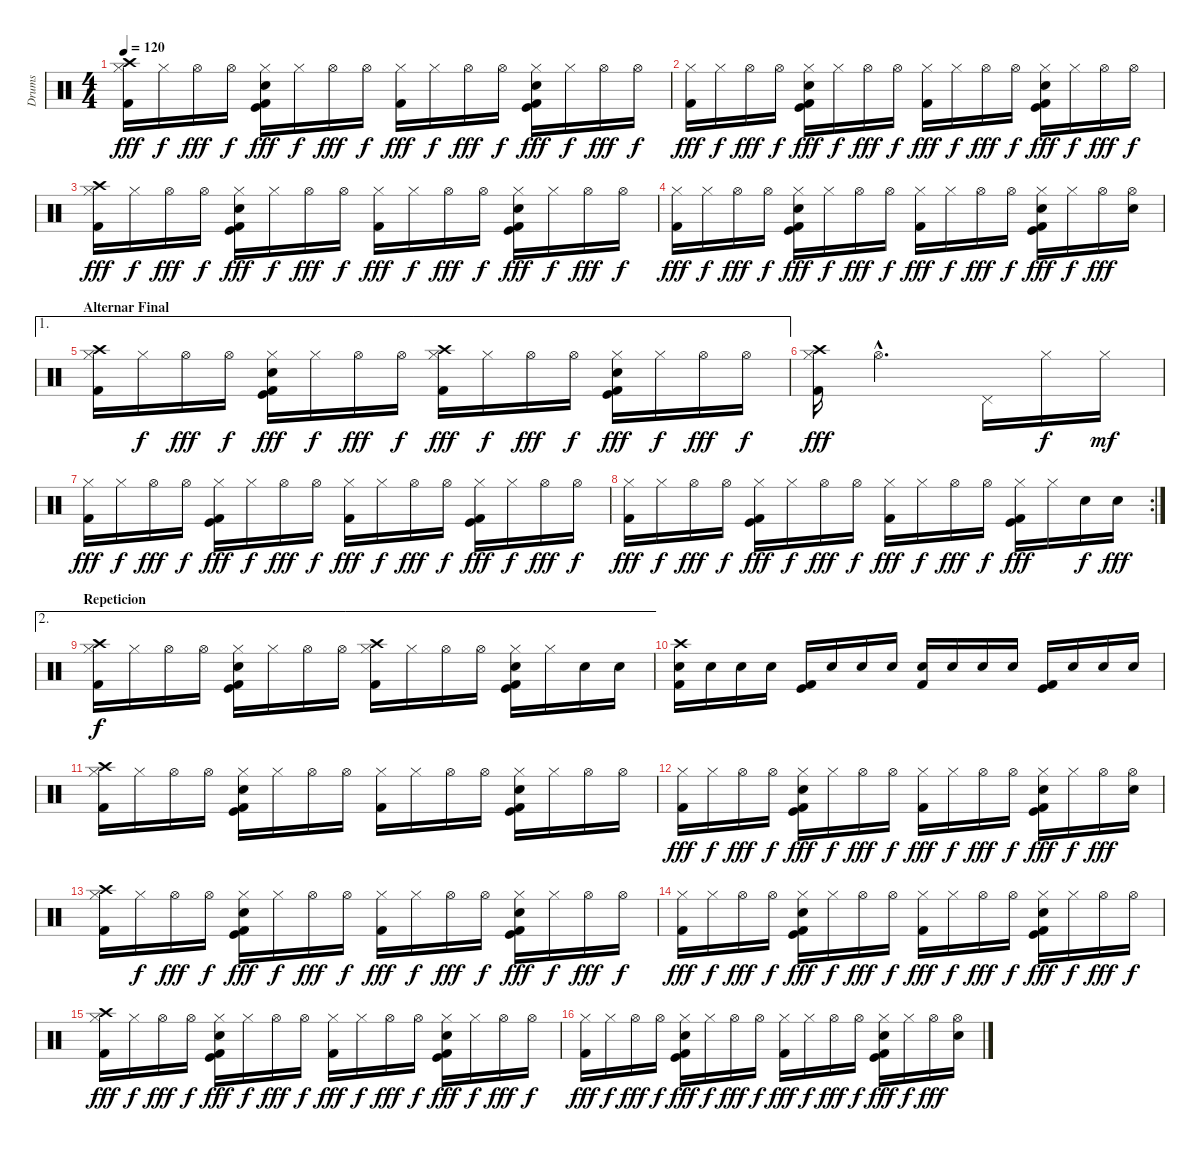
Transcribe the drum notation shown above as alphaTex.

\track ("Drums" "Drums") {instrument percussion}
\staff {score}
\articulation defaults
\ts (4 4)
\tempo 120
\clef neutral
\ks c
("Hi-Hat (closed)" "Crash high (hit)" "Kick (hit) 2").16{dy fff} "Hi-Hat (closed)".16{dy f} "Hi-Hat (open)".16{dy fff} "Hi-Hat (open)".16{dy f} ("Hi-Hat (closed)" "Electric Snare (hit)" "Kick (hit)" "Kick (hit) 2").16{dy fff} "Hi-Hat (closed)".16{dy f} "Hi-Hat (open)".16{dy fff} "Hi-Hat (open)".16{dy f} ("Hi-Hat (closed)" "Kick (hit) 2").16{dy fff} "Hi-Hat (closed)".16{dy f} "Hi-Hat (open)".16{dy fff} "Hi-Hat (open)".16{dy f} ("Hi-Hat (closed)" "Electric Snare (hit)" "Kick (hit)" "Kick (hit) 2").16{dy fff} "Hi-Hat (closed)".16{dy f} "Hi-Hat (open)".16{dy fff} "Hi-Hat (open)".16{dy f} |
("Hi-Hat (closed)" "Kick (hit) 2").16{dy fff} "Hi-Hat (closed)".16{dy f} "Hi-Hat (open)".16{dy fff} "Hi-Hat (open)".16{dy f} ("Hi-Hat (closed)" "Electric Snare (hit)" "Kick (hit) 2" "Kick (hit)").16{dy fff} "Hi-Hat (closed)".16{dy f} "Hi-Hat (open)".16{dy fff} "Hi-Hat (open)".16{dy f} ("Hi-Hat (closed)" "Kick (hit) 2").16{dy fff} "Hi-Hat (closed)".16{dy f} "Hi-Hat (open)".16{dy fff} "Hi-Hat (open)".16{dy f} ("Hi-Hat (closed)" "Electric Snare (hit)" "Kick (hit)" "Kick (hit) 2").16{dy fff} "Hi-Hat (closed)".16{dy f} "Hi-Hat (open)".16{dy fff} "Hi-Hat (open)".16{dy f} |
("Hi-Hat (closed)" "Crash high (hit)" "Kick (hit) 2").16{dy fff} "Hi-Hat (closed)".16{dy f} "Hi-Hat (open)".16{dy fff} "Hi-Hat (open)".16{dy f} ("Hi-Hat (closed)" "Electric Snare (hit)" "Kick (hit)" "Kick (hit) 2").16{dy fff} "Hi-Hat (closed)".16{dy f} "Hi-Hat (open)".16{dy fff} "Hi-Hat (open)".16{dy f} ("Hi-Hat (closed)" "Kick (hit) 2").16{dy fff} "Hi-Hat (closed)".16{dy f} "Hi-Hat (open)".16{dy fff} "Hi-Hat (open)".16{dy f} ("Hi-Hat (closed)" "Electric Snare (hit)" "Kick (hit)" "Kick (hit) 2").16{dy fff} "Hi-Hat (closed)".16{dy f} "Hi-Hat (open)".16{dy fff} "Hi-Hat (open)".16{dy f} |
("Hi-Hat (closed)" "Kick (hit) 2").16{dy fff} "Hi-Hat (closed)".16{dy f} "Hi-Hat (open)".16{dy fff} "Hi-Hat (open)".16{dy f} ("Hi-Hat (closed)" "Electric Snare (hit)" "Kick (hit) 2" "Kick (hit)").16{dy fff} "Hi-Hat (closed)".16{dy f} "Hi-Hat (open)".16{dy fff} "Hi-Hat (open)".16{dy f} ("Hi-Hat (closed)" "Kick (hit) 2").16{dy fff} "Hi-Hat (closed)".16{dy f} "Hi-Hat (open)".16{dy fff} "Hi-Hat (open)".16{dy f} ("Hi-Hat (closed)" "Electric Snare (hit)" "Kick (hit)" "Kick (hit) 2").16{dy fff} "Hi-Hat (closed)".16{dy f} "Hi-Hat (open)".16{dy fff} ("Hi-Hat (open)" "Electric Snare (hit)").16 |
\ae 1
\section ("" "Alternar Final")
("Hi-Hat (closed)" "Crash high (hit)" "Kick (hit) 2").16 "Hi-Hat (closed)".16{dy f} "Hi-Hat (open)".16{dy fff} "Hi-Hat (open)".16{dy f} ("Hi-Hat (closed)" "Electric Snare (hit)" "Kick (hit)" "Kick (hit) 2").16{dy fff} "Hi-Hat (closed)".16{dy f} "Hi-Hat (open)".16{dy fff} "Hi-Hat (open)".16{dy f} ("Hi-Hat (closed)" "Crash high (hit)" "Kick (hit) 2").16{dy fff} "Hi-Hat (closed)".16{dy f} "Hi-Hat (open)".16{dy fff} "Hi-Hat (open)".16{dy f} ("Hi-Hat (closed)" "Electric Snare (hit)" "Kick (hit)" "Kick (hit) 2").16{dy fff} "Hi-Hat (closed)".16{dy f} "Hi-Hat (open)".16{dy fff} "Hi-Hat (open)".16{dy f} |
("Hi-Hat (closed)" "Crash high (hit)" "Kick (hit) 2").16{dy fff} "Hi-Hat (open)"{hac}.2{d} "Pedal Hi-Hat (hit)".16 "Hi-Hat (closed)".16{dy f} "Hi-Hat (closed)".16{dy mf} |
("Hi-Hat (closed)" "Kick (hit) 2").16{dy fff} "Hi-Hat (closed)".16{dy f} "Hi-Hat (open)".16{dy fff} "Hi-Hat (open)".16{dy f} ("Hi-Hat (closed)" "Kick (hit)" "Kick (hit) 2").16{dy fff} "Hi-Hat (closed)".16{dy f} "Hi-Hat (open)".16{dy fff} "Hi-Hat (open)".16{dy f} ("Hi-Hat (closed)" "Kick (hit) 2").16{dy fff} "Hi-Hat (closed)".16{dy f} "Hi-Hat (open)".16{dy fff} "Hi-Hat (open)".16{dy f} ("Hi-Hat (closed)" "Kick (hit)" "Kick (hit) 2").16{dy fff} "Hi-Hat (closed)".16{dy f} "Hi-Hat (open)".16{dy fff} "Hi-Hat (open)".16{dy f} |
\rc 2
("Hi-Hat (closed)" "Kick (hit) 2").16{dy fff} "Hi-Hat (closed)".16{dy f} "Hi-Hat (open)".16{dy fff} "Hi-Hat (open)".16{dy f} ("Hi-Hat (closed)" "Kick (hit)" "Kick (hit) 2").16{dy fff} "Hi-Hat (closed)".16{dy f} "Hi-Hat (open)".16{dy fff} "Hi-Hat (open)".16{dy f} ("Hi-Hat (closed)" "Kick (hit) 2").16{dy fff} "Hi-Hat (closed)".16{dy f} "Hi-Hat (open)".16{dy fff} "Hi-Hat (open)".16{dy f} ("Hi-Hat (closed)" "Kick (hit)" "Kick (hit) 2").16{dy fff} "Hi-Hat (closed)".16 "Electric Snare (hit)".16{dy f} "Electric Snare (hit)".16{dy fff} |
\ae 2
\section ("" "Repeticion")
("Hi-Hat (closed)" "Crash high (hit)" "Kick (hit) 2").16{dy f} "Hi-Hat (closed)".16 "Hi-Hat (open)".16 "Hi-Hat (open)".16 ("Hi-Hat (closed)" "Electric Snare (hit)" "Kick (hit)" "Kick (hit) 2").16 "Hi-Hat (closed)".16 "Hi-Hat (open)".16 "Hi-Hat (open)".16 ("Hi-Hat (closed)" "Crash high (hit)" "Kick (hit) 2").16 "Hi-Hat (closed)".16 "Hi-Hat (open)".16 "Hi-Hat (open)".16 ("Hi-Hat (closed)" "Electric Snare (hit)" "Kick (hit)" "Kick (hit) 2").16 "Hi-Hat (closed)".16 "Electric Snare (hit)".16 "Electric Snare (hit)".16 |
("Electric Snare (hit)" "Crash high (hit)" "Kick (hit) 2").16 "Electric Snare (hit)".16 "Electric Snare (hit)".16 "Electric Snare (hit)".16 ("Kick (hit)" "Kick (hit) 2").16 "Electric Snare (hit)".16 "Electric Snare (hit)".16 "Electric Snare (hit)".16 ("Electric Snare (hit)" "Kick (hit) 2").16 "Electric Snare (hit)".16 "Electric Snare (hit)".16 "Electric Snare (hit)".16 ("Kick (hit)" "Kick (hit) 2").16 "Electric Snare (hit)".16 "Electric Snare (hit)".16 "Electric Snare (hit)".16 |
("Hi-Hat (closed)" "Crash high (hit)" "Kick (hit) 2").16 "Hi-Hat (closed)".16 "Hi-Hat (open)".16 "Hi-Hat (open)".16 ("Hi-Hat (closed)" "Electric Snare (hit)" "Kick (hit)" "Kick (hit) 2").16 "Hi-Hat (closed)".16 "Hi-Hat (open)".16 "Hi-Hat (open)".16 ("Hi-Hat (closed)" "Kick (hit) 2").16 "Hi-Hat (closed)".16 "Hi-Hat (open)".16 "Hi-Hat (open)".16 ("Hi-Hat (closed)" "Electric Snare (hit)" "Kick (hit)" "Kick (hit) 2").16 "Hi-Hat (closed)".16 "Hi-Hat (open)".16 "Hi-Hat (open)".16 |
("Hi-Hat (closed)" "Kick (hit) 2").16{dy fff} "Hi-Hat (closed)".16{dy f} "Hi-Hat (open)".16{dy fff} "Hi-Hat (open)".16{dy f} ("Hi-Hat (closed)" "Electric Snare (hit)" "Kick (hit) 2" "Kick (hit)").16{dy fff} "Hi-Hat (closed)".16{dy f} "Hi-Hat (open)".16{dy fff} "Hi-Hat (open)".16{dy f} ("Hi-Hat (closed)" "Kick (hit) 2").16{dy fff} "Hi-Hat (closed)".16{dy f} "Hi-Hat (open)".16{dy fff} "Hi-Hat (open)".16{dy f} ("Hi-Hat (closed)" "Electric Snare (hit)" "Kick (hit)" "Kick (hit) 2").16{dy fff} "Hi-Hat (closed)".16{dy f} "Hi-Hat (open)".16{dy fff} ("Hi-Hat (open)" "Electric Snare (hit)").16 |
("Hi-Hat (closed)" "Crash high (hit)" "Kick (hit) 2").16 "Hi-Hat (closed)".16{dy f} "Hi-Hat (open)".16{dy fff} "Hi-Hat (open)".16{dy f} ("Hi-Hat (closed)" "Electric Snare (hit)" "Kick (hit)" "Kick (hit) 2").16{dy fff} "Hi-Hat (closed)".16{dy f} "Hi-Hat (open)".16{dy fff} "Hi-Hat (open)".16{dy f} ("Hi-Hat (closed)" "Kick (hit) 2").16{dy fff} "Hi-Hat (closed)".16{dy f} "Hi-Hat (open)".16{dy fff} "Hi-Hat (open)".16{dy f} ("Hi-Hat (closed)" "Electric Snare (hit)" "Kick (hit)" "Kick (hit) 2").16{dy fff} "Hi-Hat (closed)".16{dy f} "Hi-Hat (open)".16{dy fff} "Hi-Hat (open)".16{dy f} |
("Hi-Hat (closed)" "Kick (hit) 2").16{dy fff} "Hi-Hat (closed)".16{dy f} "Hi-Hat (open)".16{dy fff} "Hi-Hat (open)".16{dy f} ("Hi-Hat (closed)" "Electric Snare (hit)" "Kick (hit) 2" "Kick (hit)").16{dy fff} "Hi-Hat (closed)".16{dy f} "Hi-Hat (open)".16{dy fff} "Hi-Hat (open)".16{dy f} ("Hi-Hat (closed)" "Kick (hit) 2").16{dy fff} "Hi-Hat (closed)".16{dy f} "Hi-Hat (open)".16{dy fff} "Hi-Hat (open)".16{dy f} ("Hi-Hat (closed)" "Electric Snare (hit)" "Kick (hit)" "Kick (hit) 2").16{dy fff} "Hi-Hat (closed)".16{dy f} "Hi-Hat (open)".16{dy fff} "Hi-Hat (open)".16{dy f} |
("Hi-Hat (closed)" "Crash high (hit)" "Kick (hit) 2").16{dy fff} "Hi-Hat (closed)".16{dy f} "Hi-Hat (open)".16{dy fff} "Hi-Hat (open)".16{dy f} ("Hi-Hat (closed)" "Electric Snare (hit)" "Kick (hit)" "Kick (hit) 2").16{dy fff} "Hi-Hat (closed)".16{dy f} "Hi-Hat (open)".16{dy fff} "Hi-Hat (open)".16{dy f} ("Hi-Hat (closed)" "Kick (hit) 2").16{dy fff} "Hi-Hat (closed)".16{dy f} "Hi-Hat (open)".16{dy fff} "Hi-Hat (open)".16{dy f} ("Hi-Hat (closed)" "Electric Snare (hit)" "Kick (hit)" "Kick (hit) 2").16{dy fff} "Hi-Hat (closed)".16{dy f} "Hi-Hat (open)".16{dy fff} "Hi-Hat (open)".16{dy f} |
("Hi-Hat (closed)" "Kick (hit) 2").16{dy fff} "Hi-Hat (closed)".16{dy f} "Hi-Hat (open)".16{dy fff} "Hi-Hat (open)".16{dy f} ("Hi-Hat (closed)" "Electric Snare (hit)" "Kick (hit) 2" "Kick (hit)").16{dy fff} "Hi-Hat (closed)".16{dy f} "Hi-Hat (open)".16{dy fff} "Hi-Hat (open)".16{dy f} ("Hi-Hat (closed)" "Kick (hit) 2").16{dy fff} "Hi-Hat (closed)".16{dy f} "Hi-Hat (open)".16{dy fff} "Hi-Hat (open)".16{dy f} ("Hi-Hat (closed)" "Electric Snare (hit)" "Kick (hit)" "Kick (hit) 2").16{dy fff} "Hi-Hat (closed)".16{dy f} "Hi-Hat (open)".16{dy fff} ("Hi-Hat (open)" "Electric Snare (hit)").16
